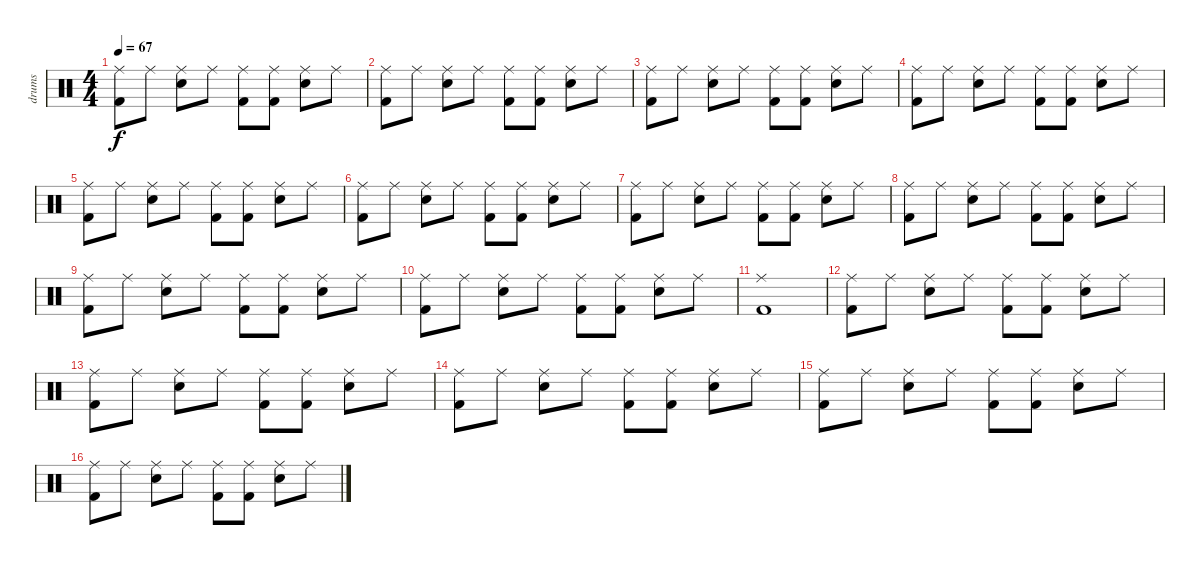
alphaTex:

\track ("drums" "drums") {instrument percussion}
\staff {score}
\articulation defaults
\ts (4 4)
\tempo 67
\clef neutral
\ks c
("Ride (middle)" "Kick (hit) 2").8{dy f} "Ride (middle)".8 ("Ride (middle)" "Electric Snare (hit)").8 "Ride (middle)".8 ("Ride (middle)" "Kick (hit) 2").8 ("Ride (middle)" "Kick (hit) 2").8 ("Ride (middle)" "Electric Snare (hit)").8 "Ride (middle)".8 |
("Ride (middle)" "Kick (hit) 2").8 "Ride (middle)".8 ("Ride (middle)" "Electric Snare (hit)").8 "Ride (middle)".8 ("Ride (middle)" "Kick (hit) 2").8 ("Ride (middle)" "Kick (hit) 2").8 ("Ride (middle)" "Electric Snare (hit)").8 "Ride (middle)".8 |
("Ride (middle)" "Kick (hit) 2").8 "Ride (middle)".8 ("Ride (middle)" "Electric Snare (hit)").8 "Ride (middle)".8 ("Ride (middle)" "Kick (hit) 2").8 ("Ride (middle)" "Kick (hit) 2").8 ("Ride (middle)" "Electric Snare (hit)").8 "Ride (middle)".8 |
("Ride (middle)" "Kick (hit) 2").8 "Ride (middle)".8 ("Ride (middle)" "Electric Snare (hit)").8 "Ride (middle)".8 ("Ride (middle)" "Kick (hit) 2").8 ("Ride (middle)" "Kick (hit) 2").8 ("Ride (middle)" "Electric Snare (hit)").8 "Ride (middle)".8 |
("Ride (middle)" "Kick (hit) 2").8 "Ride (middle)".8 ("Ride (middle)" "Electric Snare (hit)").8 "Ride (middle)".8 ("Ride (middle)" "Kick (hit) 2").8 ("Ride (middle)" "Kick (hit) 2").8 ("Ride (middle)" "Electric Snare (hit)").8 "Ride (middle)".8 |
("Ride (middle)" "Kick (hit) 2").8 "Ride (middle)".8 ("Ride (middle)" "Electric Snare (hit)").8 "Ride (middle)".8 ("Ride (middle)" "Kick (hit) 2").8 ("Ride (middle)" "Kick (hit) 2").8 ("Ride (middle)" "Electric Snare (hit)").8 "Ride (middle)".8 |
("Ride (middle)" "Kick (hit) 2").8 "Ride (middle)".8 ("Ride (middle)" "Electric Snare (hit)").8 "Ride (middle)".8 ("Ride (middle)" "Kick (hit) 2").8 ("Ride (middle)" "Kick (hit) 2").8 ("Ride (middle)" "Electric Snare (hit)").8 "Ride (middle)".8 |
("Ride (middle)" "Kick (hit) 2").8 "Ride (middle)".8 ("Ride (middle)" "Electric Snare (hit)").8 "Ride (middle)".8 ("Ride (middle)" "Kick (hit) 2").8 ("Ride (middle)" "Kick (hit) 2").8 ("Ride (middle)" "Electric Snare (hit)").8 "Ride (middle)".8 |
("Ride (middle)" "Kick (hit) 2").8 "Ride (middle)".8 ("Ride (middle)" "Electric Snare (hit)").8 "Ride (middle)".8 ("Ride (middle)" "Kick (hit) 2").8 ("Ride (middle)" "Kick (hit) 2").8 ("Ride (middle)" "Electric Snare (hit)").8 "Ride (middle)".8 |
("Ride (middle)" "Kick (hit) 2").8 "Ride (middle)".8 ("Ride (middle)" "Electric Snare (hit)").8 "Ride (middle)".8 ("Ride (middle)" "Kick (hit) 2").8 ("Ride (middle)" "Kick (hit) 2").8 ("Ride (middle)" "Electric Snare (hit)").8 "Ride (middle)".8 |
("Ride (middle)" "Kick (hit) 2").1 |
("Ride (middle)" "Kick (hit) 2").8 "Ride (middle)".8 ("Ride (middle)" "Electric Snare (hit)").8 "Ride (middle)".8 ("Ride (middle)" "Kick (hit) 2").8 ("Ride (middle)" "Kick (hit) 2").8 ("Ride (middle)" "Electric Snare (hit)").8 "Ride (middle)".8 |
("Ride (middle)" "Kick (hit) 2").8 "Ride (middle)".8 ("Ride (middle)" "Electric Snare (hit)").8 "Ride (middle)".8 ("Ride (middle)" "Kick (hit) 2").8 ("Ride (middle)" "Kick (hit) 2").8 ("Ride (middle)" "Electric Snare (hit)").8 "Ride (middle)".8 |
("Ride (middle)" "Kick (hit) 2").8 "Ride (middle)".8 ("Ride (middle)" "Electric Snare (hit)").8 "Ride (middle)".8 ("Ride (middle)" "Kick (hit) 2").8 ("Ride (middle)" "Kick (hit) 2").8 ("Ride (middle)" "Electric Snare (hit)").8 "Ride (middle)".8 |
("Ride (middle)" "Kick (hit) 2").8 "Ride (middle)".8 ("Ride (middle)" "Electric Snare (hit)").8 "Ride (middle)".8 ("Ride (middle)" "Kick (hit) 2").8 ("Ride (middle)" "Kick (hit) 2").8 ("Ride (middle)" "Electric Snare (hit)").8 "Ride (middle)".8 |
("Ride (middle)" "Kick (hit) 2").8 "Ride (middle)".8 ("Ride (middle)" "Electric Snare (hit)").8 "Ride (middle)".8 ("Ride (middle)" "Kick (hit) 2").8 ("Ride (middle)" "Kick (hit) 2").8 ("Ride (middle)" "Electric Snare (hit)").8 "Ride (middle)".8
